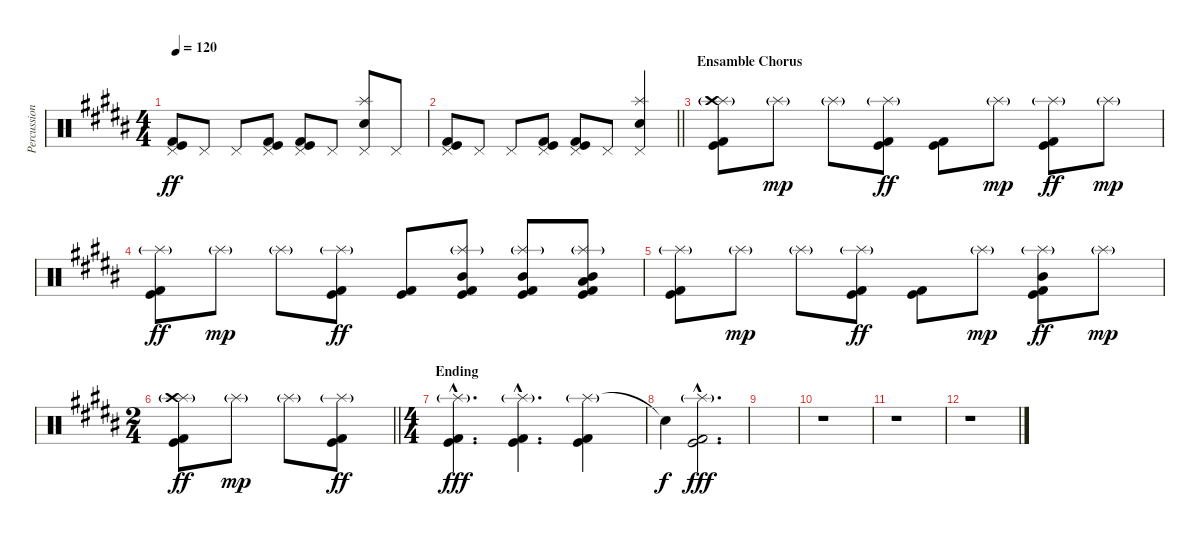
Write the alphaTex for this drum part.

\track ("Percussion" "Percussion") {instrument percussion}
\staff {score}
\articulation defaults
\ts (4 4)
\tempo 120
\clef neutral
\ks b
("Pedal Hi-Hat (hit)" "Kick (hit)" "Kick (hit) 2").8{dy ff} "Pedal Hi-Hat (hit)".8 "Pedal Hi-Hat (hit)".8 ("Pedal Hi-Hat (hit)" "Kick (hit)" "Kick (hit) 2").8 ("Pedal Hi-Hat (hit)" "Kick (hit)" "Kick (hit) 2").8 "Pedal Hi-Hat (hit)".8 ("Splash (hit)" "Snare (hit) 2" "Pedal Hi-Hat (hit)").8 "Pedal Hi-Hat (hit)".8 |
\barLineRight lightlight
("Pedal Hi-Hat (hit)" "Kick (hit)" "Kick (hit) 2").8 "Pedal Hi-Hat (hit)".8 "Pedal Hi-Hat (hit)".8 ("Pedal Hi-Hat (hit)" "Kick (hit)" "Kick (hit) 2").8 ("Pedal Hi-Hat (hit)" "Kick (hit)" "Kick (hit) 2").8 "Pedal Hi-Hat (hit)".8 ("Splash (hit)" "Snare (hit) 2" "Pedal Hi-Hat (hit)").4 |
\section ("" "Ensamble Chorus")
("Splash (hit)"{g} "Crash high (hit)" "Kick (hit)" "Kick (hit) 2").8 "Splash (hit)"{g}.8{dy mp} "Splash (hit)"{g}.8 ("Splash (hit)"{g} "Kick (hit)" "Kick (hit) 2").8{dy ff} ("Kick (hit)" "Kick (hit) 2").8 "Splash (hit)"{g}.8{dy mp} ("Splash (hit)"{g} "Kick (hit)" "Kick (hit) 2").8{dy ff} "Splash (hit)"{g}.8{dy mp} |
("Splash (hit)"{g} "Kick (hit)" "Kick (hit) 2").8{dy ff} "Splash (hit)"{g}.8{dy mp} "Splash (hit)"{g}.8 ("Splash (hit)"{g} "Kick (hit)" "Kick (hit) 2").8{dy ff} ("Kick (hit)" "Kick (hit) 2").8 ("Splash (hit)"{g} "Mid Tom (hit)" "Kick (hit)" "Kick (hit) 2").8 ("Splash (hit)"{g} "Mid Tom (hit)" "Kick (hit)" "Kick (hit) 2").8 ("Splash (hit)"{g} "Low Tom (hit)" "Mid Tom (hit)" "Kick (hit)" "Kick (hit) 2").8 |
("Splash (hit)"{g} "Kick (hit)" "Kick (hit) 2").8 "Splash (hit)"{g}.8{dy mp} "Splash (hit)"{g}.8 ("Splash (hit)"{g} "Kick (hit)" "Kick (hit) 2").8{dy ff} ("Kick (hit)" "Kick (hit) 2").8 "Splash (hit)"{g}.8{dy mp} ("Splash (hit)"{g} "Mid Tom (hit)" "Kick (hit) 2" "Kick (hit)").8{dy ff} "Splash (hit)"{g}.8{dy mp} |
\ts (2 4)
\barLineRight lightlight
("Splash (hit)"{g} "Crash high (hit)" "Kick (hit)" "Kick (hit) 2").8{dy ff} "Splash (hit)"{g}.8{dy mp} "Splash (hit)"{g}.8 ("Splash (hit)"{g} "Kick (hit)" "Kick (hit) 2").8{dy ff} |
\ts (4 4)
\section ("" "Ending")
("Splash (hit)"{g hac} "Kick (hit)"{hac} "Kick (hit) 2"{hac}).4{d dy fff} ("Splash (hit)"{g hac} "Kick (hit)"{hac} "Kick (hit) 2"{hac}).4{d} ("Splash (hit)"{g} "Kick (hit)" "Kick (hit) 2").4 |
"Snare (hit)"{t}.4{dy f} ("Splash (hit)"{g hac} "Kick (hit)"{hac} "Kick (hit) 2"{hac}).2{d dy fff} |
|
r.1 |
r.1 |
r.1
